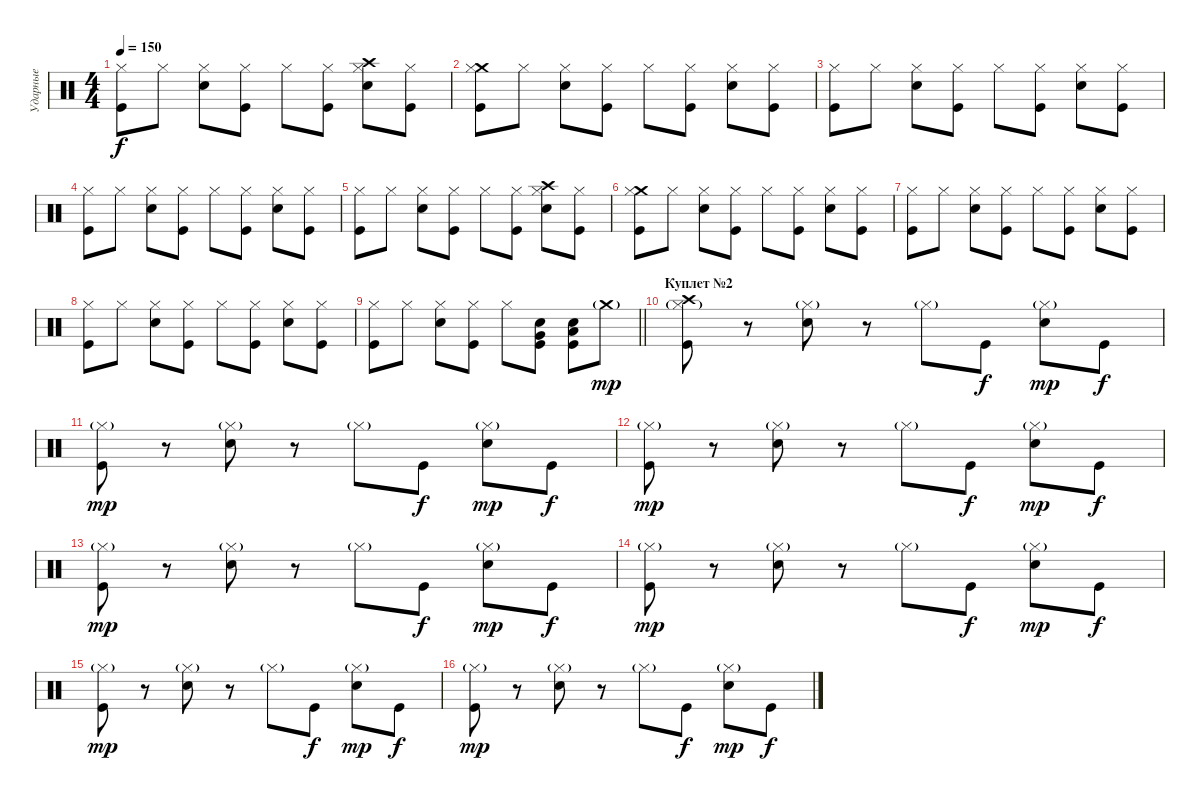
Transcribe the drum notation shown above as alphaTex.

\track ("Ударные" "Ударные") {instrument percussion}
\staff {score}
\articulation defaults
\ts (4 4)
\tempo 150
\clef neutral
\ks c
("Hi-Hat (closed)" "Kick (hit)").8{dy f} "Hi-Hat (closed)".8 ("Hi-Hat (closed)" "Electric Snare (hit)").8 ("Hi-Hat (closed)" "Kick (hit)").8 "Hi-Hat (closed)".8 ("Hi-Hat (closed)" "Kick (hit)").8 ("Crash high (hit)" "Hi-Hat (closed)" "Electric Snare (hit)").8 ("Hi-Hat (closed)" "Kick (hit)").8 |
("Crash medium (hit)" "Hi-Hat (closed)" "Kick (hit)").8 "Hi-Hat (closed)".8 ("Hi-Hat (closed)" "Electric Snare (hit)").8 ("Hi-Hat (closed)" "Kick (hit)").8 "Hi-Hat (closed)".8 ("Hi-Hat (closed)" "Kick (hit)").8 ("Hi-Hat (closed)" "Electric Snare (hit)").8 ("Hi-Hat (closed)" "Kick (hit)").8 |
("Hi-Hat (closed)" "Kick (hit)").8 "Hi-Hat (closed)".8 ("Hi-Hat (closed)" "Electric Snare (hit)").8 ("Hi-Hat (closed)" "Kick (hit)").8 "Hi-Hat (closed)".8 ("Hi-Hat (closed)" "Kick (hit)").8 ("Hi-Hat (closed)" "Electric Snare (hit)").8 ("Hi-Hat (closed)" "Kick (hit)").8 |
("Hi-Hat (closed)" "Kick (hit)").8 "Hi-Hat (closed)".8 ("Hi-Hat (closed)" "Electric Snare (hit)").8 ("Hi-Hat (closed)" "Kick (hit)").8 "Hi-Hat (closed)".8 ("Hi-Hat (closed)" "Kick (hit)").8 ("Hi-Hat (closed)" "Electric Snare (hit)").8 ("Hi-Hat (closed)" "Kick (hit)").8 |
("Hi-Hat (closed)" "Kick (hit)").8 "Hi-Hat (closed)".8 ("Hi-Hat (closed)" "Electric Snare (hit)").8 ("Hi-Hat (closed)" "Kick (hit)").8 "Hi-Hat (closed)".8 ("Hi-Hat (closed)" "Kick (hit)").8 ("Crash high (hit)" "Hi-Hat (closed)" "Electric Snare (hit)").8 ("Hi-Hat (closed)" "Kick (hit)").8 |
("Crash medium (hit)" "Hi-Hat (closed)" "Kick (hit)").8 "Hi-Hat (closed)".8 ("Hi-Hat (closed)" "Electric Snare (hit)").8 ("Hi-Hat (closed)" "Kick (hit)").8 "Hi-Hat (closed)".8 ("Hi-Hat (closed)" "Kick (hit)").8 ("Hi-Hat (closed)" "Electric Snare (hit)").8 ("Hi-Hat (closed)" "Kick (hit)").8 |
("Hi-Hat (closed)" "Kick (hit)").8 "Hi-Hat (closed)".8 ("Hi-Hat (closed)" "Electric Snare (hit)").8 ("Hi-Hat (closed)" "Kick (hit)").8 "Hi-Hat (closed)".8 ("Hi-Hat (closed)" "Kick (hit)").8 ("Hi-Hat (closed)" "Electric Snare (hit)").8 ("Hi-Hat (closed)" "Kick (hit)").8 |
("Hi-Hat (closed)" "Kick (hit)").8 "Hi-Hat (closed)".8 ("Hi-Hat (closed)" "Electric Snare (hit)").8 ("Hi-Hat (closed)" "Kick (hit)").8 "Hi-Hat (closed)".8 ("Hi-Hat (closed)" "Kick (hit)").8 ("Hi-Hat (closed)" "Electric Snare (hit)").8 ("Hi-Hat (closed)" "Kick (hit)").8 |
\barLineRight lightlight
("Hi-Hat (closed)" "Kick (hit)").8 "Hi-Hat (closed)".8 ("Hi-Hat (closed)" "Electric Snare (hit)").8 ("Hi-Hat (closed)" "Kick (hit)").8 "Hi-Hat (closed)".8 ("Very Low Tom (hit)" "Electric Snare (hit)" "Kick (hit)").8 ("Low Floor Tom (hit)" "Electric Snare (hit)" "Kick (hit)").8 "Crash medium (hit)"{g}.8{dy mp} |
\section ("" "Куплет №2")
("Crash high (hit)" "Hi-Hat (closed)"{g} "Kick (hit)").8 r.8 ("Hi-Hat (closed)"{g} "Electric Snare (hit)").8 r.8 "Hi-Hat (closed)"{g}.8 "Kick (hit)".8{dy f} ("Hi-Hat (closed)"{g} "Electric Snare (hit)").8{dy mp} "Kick (hit)".8{dy f} |
("Hi-Hat (closed)"{g} "Kick (hit)").8{dy mp} r.8 ("Hi-Hat (closed)"{g} "Electric Snare (hit)").8 r.8 "Hi-Hat (closed)"{g}.8 "Kick (hit)".8{dy f} ("Hi-Hat (closed)"{g} "Electric Snare (hit)").8{dy mp} "Kick (hit)".8{dy f} |
("Hi-Hat (closed)"{g} "Kick (hit)").8{dy mp} r.8 ("Hi-Hat (closed)"{g} "Electric Snare (hit)").8 r.8 "Hi-Hat (closed)"{g}.8 "Kick (hit)".8{dy f} ("Hi-Hat (closed)"{g} "Electric Snare (hit)").8{dy mp} "Kick (hit)".8{dy f} |
("Hi-Hat (closed)"{g} "Kick (hit)").8{dy mp} r.8 ("Hi-Hat (closed)"{g} "Electric Snare (hit)").8 r.8 "Hi-Hat (closed)"{g}.8 "Kick (hit)".8{dy f} ("Hi-Hat (closed)"{g} "Electric Snare (hit)").8{dy mp} "Kick (hit)".8{dy f} |
("Hi-Hat (closed)"{g} "Kick (hit)").8{dy mp} r.8 ("Hi-Hat (closed)"{g} "Electric Snare (hit)").8 r.8 "Hi-Hat (closed)"{g}.8 "Kick (hit)".8{dy f} ("Hi-Hat (closed)"{g} "Electric Snare (hit)").8{dy mp} "Kick (hit)".8{dy f} |
("Hi-Hat (closed)"{g} "Kick (hit)").8{dy mp} r.8 ("Hi-Hat (closed)"{g} "Electric Snare (hit)").8 r.8 "Hi-Hat (closed)"{g}.8 "Kick (hit)".8{dy f} ("Hi-Hat (closed)"{g} "Electric Snare (hit)").8{dy mp} "Kick (hit)".8{dy f} |
("Hi-Hat (closed)"{g} "Kick (hit)").8{dy mp} r.8 ("Hi-Hat (closed)"{g} "Electric Snare (hit)").8 r.8 "Hi-Hat (closed)"{g}.8 "Kick (hit)".8{dy f} ("Hi-Hat (closed)"{g} "Electric Snare (hit)").8{dy mp} "Kick (hit)".8{dy f}
